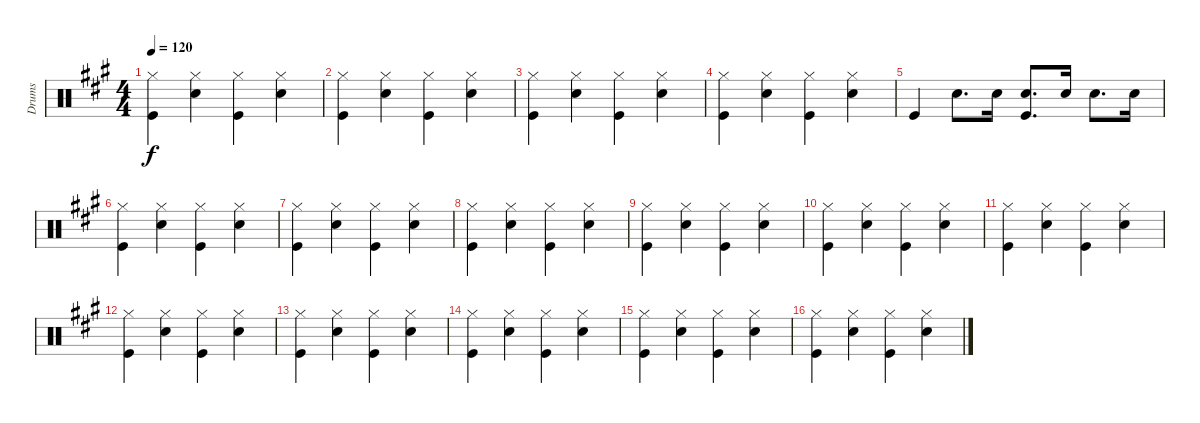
\track ("Drums" "Drums") {instrument percussion}
\staff {score}
\articulation defaults
\ts (4 4)
\tempo 120
\clef neutral
\ks a
("Kick (hit)" "Hi-Hat (closed)").4{dy f} ("Snare (hit) 2" "Hi-Hat (closed)").4 ("Kick (hit)" "Hi-Hat (closed)").4 ("Snare (hit) 2" "Hi-Hat (closed)").4 |
("Kick (hit)" "Hi-Hat (closed)").4 ("Snare (hit) 2" "Hi-Hat (closed)").4 ("Kick (hit)" "Hi-Hat (closed)").4 ("Snare (hit) 2" "Hi-Hat (closed)").4 |
("Kick (hit)" "Hi-Hat (closed)").4 ("Snare (hit) 2" "Hi-Hat (closed)").4 ("Kick (hit)" "Hi-Hat (closed)").4 ("Snare (hit) 2" "Hi-Hat (closed)").4 |
("Kick (hit)" "Hi-Hat (closed)").4 ("Snare (hit) 2" "Hi-Hat (closed)").4 ("Kick (hit)" "Hi-Hat (closed)").4 ("Snare (hit) 2" "Hi-Hat (closed)").4 |
"Kick (hit)".4 "Snare (hit) 2".8{d} "Snare (hit) 2".16 ("Snare (hit) 2" "Kick (hit)").8{d} "Snare (hit) 2".16 "Snare (hit) 2".8{d} "Snare (hit) 2".16 |
("Kick (hit)" "Hi-Hat (closed)").4 ("Snare (hit) 2" "Hi-Hat (closed)").4 ("Kick (hit)" "Hi-Hat (closed)").4 ("Snare (hit) 2" "Hi-Hat (closed)").4 |
("Kick (hit)" "Hi-Hat (closed)").4 ("Snare (hit) 2" "Hi-Hat (closed)").4 ("Kick (hit)" "Hi-Hat (closed)").4 ("Snare (hit) 2" "Hi-Hat (closed)").4 |
("Kick (hit)" "Hi-Hat (closed)").4 ("Snare (hit) 2" "Hi-Hat (closed)").4 ("Kick (hit)" "Hi-Hat (closed)").4 ("Snare (hit) 2" "Hi-Hat (closed)").4 |
("Kick (hit)" "Hi-Hat (closed)").4 ("Snare (hit) 2" "Hi-Hat (closed)").4 ("Kick (hit)" "Hi-Hat (closed)").4 ("Snare (hit) 2" "Hi-Hat (closed)").4 |
("Kick (hit)" "Hi-Hat (closed)").4 ("Snare (hit) 2" "Hi-Hat (closed)").4 ("Kick (hit)" "Hi-Hat (closed)").4 ("Snare (hit) 2" "Hi-Hat (closed)").4 |
("Kick (hit)" "Hi-Hat (closed)").4 ("Snare (hit) 2" "Hi-Hat (closed)").4 ("Kick (hit)" "Hi-Hat (closed)").4 ("Snare (hit) 2" "Hi-Hat (closed)").4 |
("Kick (hit)" "Hi-Hat (closed)").4 ("Snare (hit) 2" "Hi-Hat (closed)").4 ("Kick (hit)" "Hi-Hat (closed)").4 ("Snare (hit) 2" "Hi-Hat (closed)").4 |
("Kick (hit)" "Hi-Hat (closed)").4 ("Snare (hit) 2" "Hi-Hat (closed)").4 ("Kick (hit)" "Hi-Hat (closed)").4 ("Snare (hit) 2" "Hi-Hat (closed)").4 |
("Kick (hit)" "Hi-Hat (closed)").4 ("Snare (hit) 2" "Hi-Hat (closed)").4 ("Kick (hit)" "Hi-Hat (closed)").4 ("Snare (hit) 2" "Hi-Hat (closed)").4 |
("Kick (hit)" "Hi-Hat (closed)").4 ("Snare (hit) 2" "Hi-Hat (closed)").4 ("Kick (hit)" "Hi-Hat (closed)").4 ("Snare (hit) 2" "Hi-Hat (closed)").4 |
("Kick (hit)" "Hi-Hat (closed)").4 ("Snare (hit) 2" "Hi-Hat (closed)").4 ("Kick (hit)" "Hi-Hat (closed)").4 ("Snare (hit) 2" "Hi-Hat (closed)").4
